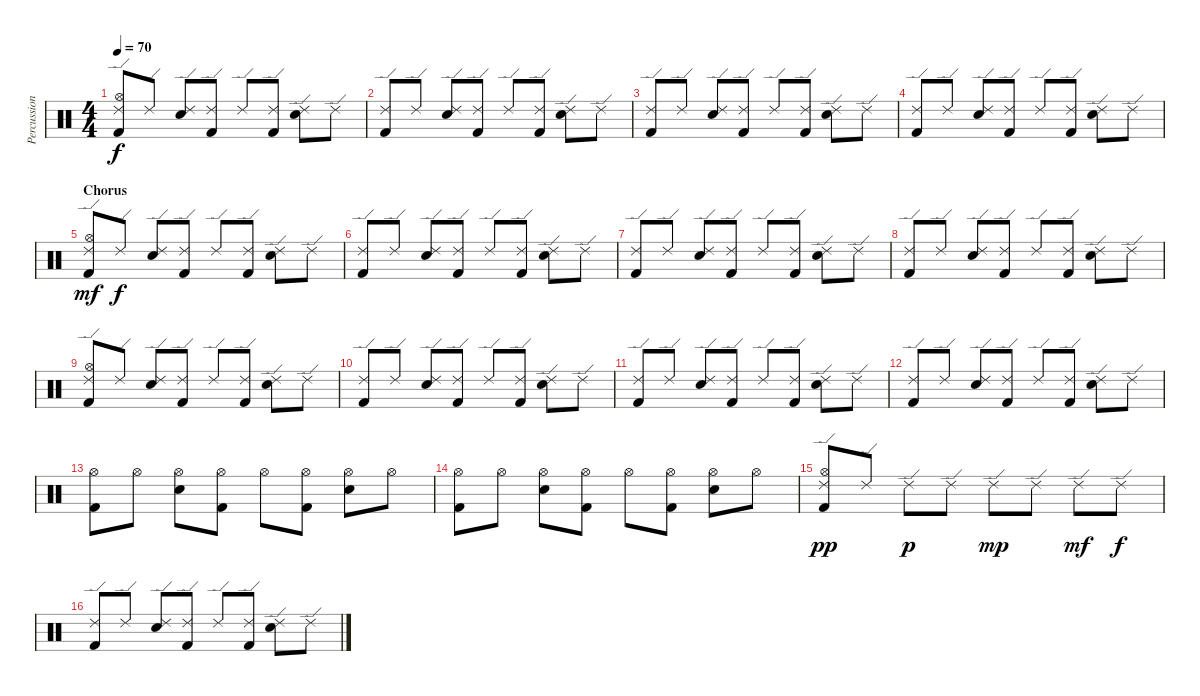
\track ("Percussion" "Percussion") {instrument percussion}
\staff {score}
\articulation defaults
\ts (4 4)
\tempo 70
\clef neutral
\ks c
("Ride (edge) 2" "Hi-Hat (open)" "Kick (hit) 2").8{dy f} "Ride (edge) 2".8 ("Ride (edge) 2" "Electric Snare (hit)").8 ("Ride (edge) 2" "Kick (hit) 2").8 "Ride (edge) 2".8 ("Ride (edge) 2" "Kick (hit) 2").8 ("Ride (edge) 2" "Electric Snare (hit)").8 "Ride (edge) 2".8 |
("Ride (edge) 2" "Kick (hit) 2").8 "Ride (edge) 2".8 ("Ride (edge) 2" "Electric Snare (hit)").8 ("Ride (edge) 2" "Kick (hit) 2").8 "Ride (edge) 2".8 ("Ride (edge) 2" "Kick (hit) 2").8 ("Ride (edge) 2" "Electric Snare (hit)").8 "Ride (edge) 2".8 |
("Ride (edge) 2" "Kick (hit) 2").8 "Ride (edge) 2".8 ("Ride (edge) 2" "Electric Snare (hit)").8 ("Ride (edge) 2" "Kick (hit) 2").8 "Ride (edge) 2".8 ("Ride (edge) 2" "Kick (hit) 2").8 ("Ride (edge) 2" "Electric Snare (hit)").8 "Ride (edge) 2".8 |
("Ride (edge) 2" "Kick (hit) 2").8 "Ride (edge) 2".8 ("Ride (edge) 2" "Electric Snare (hit)").8 ("Ride (edge) 2" "Kick (hit) 2").8 "Ride (edge) 2".8 ("Ride (edge) 2" "Kick (hit) 2").8 ("Ride (edge) 2" "Electric Snare (hit)").8 "Ride (edge) 2".8 |
\section ("" "Chorus")
("Ride (edge) 2" "Hi-Hat (open)" "Kick (hit) 2").8{dy mf} "Ride (edge) 2".8{dy f} ("Ride (edge) 2" "Electric Snare (hit)").8 ("Ride (edge) 2" "Kick (hit) 2").8 "Ride (edge) 2".8 ("Ride (edge) 2" "Kick (hit) 2").8 ("Ride (edge) 2" "Electric Snare (hit)").8 "Ride (edge) 2".8 |
("Ride (edge) 2" "Kick (hit) 2").8 "Ride (edge) 2".8 ("Ride (edge) 2" "Electric Snare (hit)").8 ("Ride (edge) 2" "Kick (hit) 2").8 "Ride (edge) 2".8 ("Ride (edge) 2" "Kick (hit) 2").8 ("Ride (edge) 2" "Electric Snare (hit)").8 "Ride (edge) 2".8 |
("Ride (edge) 2" "Kick (hit) 2").8 "Ride (edge) 2".8 ("Ride (edge) 2" "Electric Snare (hit)").8 ("Ride (edge) 2" "Kick (hit) 2").8 "Ride (edge) 2".8 ("Ride (edge) 2" "Kick (hit) 2").8 ("Ride (edge) 2" "Electric Snare (hit)").8 "Ride (edge) 2".8 |
("Ride (edge) 2" "Kick (hit) 2").8 "Ride (edge) 2".8 ("Ride (edge) 2" "Electric Snare (hit)").8 ("Ride (edge) 2" "Kick (hit) 2").8 "Ride (edge) 2".8 ("Ride (edge) 2" "Kick (hit) 2").8 ("Ride (edge) 2" "Electric Snare (hit)").8 "Ride (edge) 2".8 |
("Ride (edge) 2" "Hi-Hat (open)" "Kick (hit) 2").8 "Ride (edge) 2".8 ("Ride (edge) 2" "Electric Snare (hit)").8 ("Ride (edge) 2" "Kick (hit) 2").8 "Ride (edge) 2".8 ("Ride (edge) 2" "Kick (hit) 2").8 ("Ride (edge) 2" "Electric Snare (hit)").8 "Ride (edge) 2".8 |
("Ride (edge) 2" "Kick (hit) 2").8 "Ride (edge) 2".8 ("Ride (edge) 2" "Electric Snare (hit)").8 ("Ride (edge) 2" "Kick (hit) 2").8 "Ride (edge) 2".8 ("Ride (edge) 2" "Kick (hit) 2").8 ("Ride (edge) 2" "Electric Snare (hit)").8 "Ride (edge) 2".8 |
("Ride (edge) 2" "Kick (hit) 2").8 "Ride (edge) 2".8 ("Ride (edge) 2" "Electric Snare (hit)").8 ("Ride (edge) 2" "Kick (hit) 2").8 "Ride (edge) 2".8 ("Ride (edge) 2" "Kick (hit) 2").8 ("Ride (edge) 2" "Electric Snare (hit)").8 "Ride (edge) 2".8 |
("Ride (edge) 2" "Kick (hit) 2").8 "Ride (edge) 2".8 ("Ride (edge) 2" "Electric Snare (hit)").8 ("Ride (edge) 2" "Kick (hit) 2").8 "Ride (edge) 2".8 ("Ride (edge) 2" "Kick (hit) 2").8 ("Ride (edge) 2" "Electric Snare (hit)").8 "Ride (edge) 2".8 |
("Hi-Hat (open)" "Kick (hit) 2").8 "Hi-Hat (open)".8 ("Hi-Hat (open)" "Electric Snare (hit)").8 ("Hi-Hat (open)" "Kick (hit) 2").8 "Hi-Hat (open)".8 ("Hi-Hat (open)" "Kick (hit) 2").8 ("Hi-Hat (open)" "Electric Snare (hit)").8 "Hi-Hat (open)".8 |
("Hi-Hat (open)" "Kick (hit) 2").8 "Hi-Hat (open)".8 ("Hi-Hat (open)" "Electric Snare (hit)").8 ("Hi-Hat (open)" "Kick (hit) 2").8 "Hi-Hat (open)".8 ("Hi-Hat (open)" "Kick (hit) 2").8 ("Hi-Hat (open)" "Electric Snare (hit)").8 "Hi-Hat (open)".8 |
("Ride (edge) 2" "Hi-Hat (open)" "Kick (hit) 2").8{dy pp} "Ride (edge) 2".8 "Ride (edge) 2".8{dy p} "Ride (edge) 2".8 "Ride (edge) 2".8{dy mp} "Ride (edge) 2".8 "Ride (edge) 2".8{dy mf} "Ride (edge) 2".8{dy f} |
("Ride (edge) 2" "Kick (hit) 2").8 "Ride (edge) 2".8 ("Ride (edge) 2" "Electric Snare (hit)").8 ("Ride (edge) 2" "Kick (hit) 2").8 "Ride (edge) 2".8 ("Ride (edge) 2" "Kick (hit) 2").8 ("Ride (edge) 2" "Electric Snare (hit)").8 "Ride (edge) 2".8
